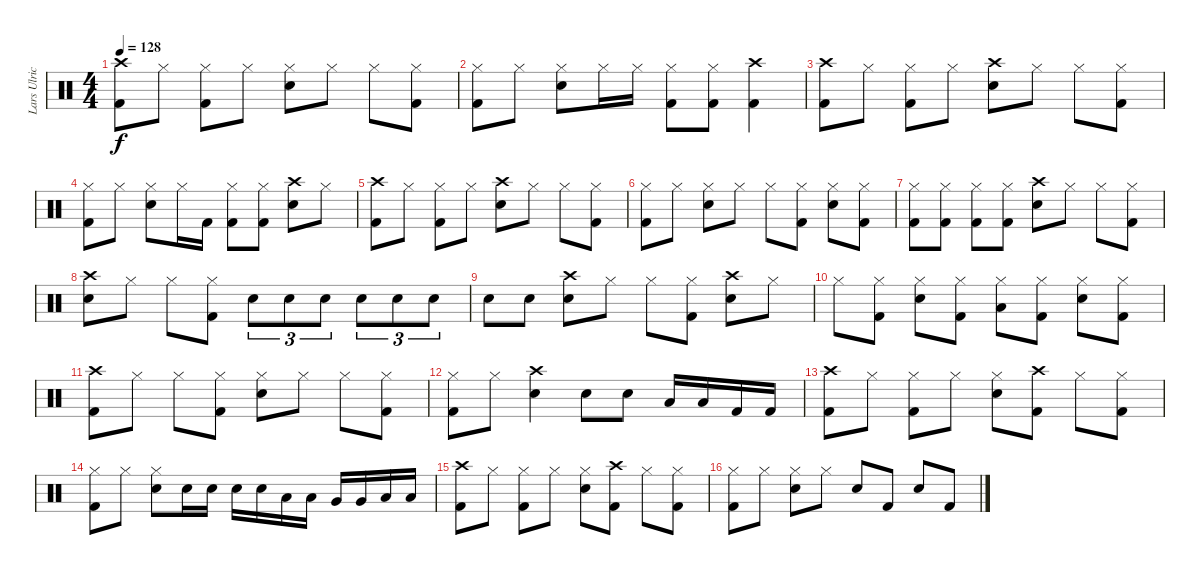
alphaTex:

\track ("Lars Ulrich" "Lars Ulric") {instrument percussion}
\staff {score}
\articulation defaults
\ts (4 4)
\tempo 128
\clef neutral
\ks c
("Crash high (hit)" "Kick (hit) 2").8{dy f} "Hi-Hat (closed)".8 ("Hi-Hat (closed)" "Kick (hit) 2").8 "Hi-Hat (closed)".8 ("Hi-Hat (closed)" "Electric Snare (hit)").8 "Hi-Hat (closed)".8 "Hi-Hat (closed)".8 ("Hi-Hat (closed)" "Kick (hit) 2").8 |
("Hi-Hat (closed)" "Kick (hit) 2").8 "Hi-Hat (closed)".8 ("Hi-Hat (closed)" "Electric Snare (hit)").8 "Hi-Hat (closed)".16 "Hi-Hat (closed)".16 ("Hi-Hat (closed)" "Kick (hit) 2").8 ("Hi-Hat (closed)" "Kick (hit) 2").8 ("Crash high (hit)" "Kick (hit) 2").4 |
("Crash high (hit)" "Kick (hit) 2").8 "Hi-Hat (closed)".8 ("Hi-Hat (closed)" "Kick (hit) 2").8 "Hi-Hat (closed)".8 ("Crash high (hit)" "Electric Snare (hit)").8 "Hi-Hat (closed)".8 "Hi-Hat (closed)".8 ("Hi-Hat (closed)" "Kick (hit) 2").8 |
("Hi-Hat (closed)" "Kick (hit) 2").8 "Hi-Hat (closed)".8 ("Hi-Hat (closed)" "Electric Snare (hit)").8 "Hi-Hat (closed)".16 "Kick (hit) 2".16 ("Hi-Hat (closed)" "Kick (hit) 2").8 ("Hi-Hat (closed)" "Kick (hit) 2").8 ("Crash high (hit)" "Electric Snare (hit)").8 "Hi-Hat (closed)".8 |
("Crash high (hit)" "Kick (hit) 2").8 "Hi-Hat (closed)".8 ("Hi-Hat (closed)" "Kick (hit) 2").8 "Hi-Hat (closed)".8 ("Crash high (hit)" "Electric Snare (hit)").8 "Hi-Hat (closed)".8 "Hi-Hat (closed)".8 ("Hi-Hat (closed)" "Kick (hit) 2").8 |
("Hi-Hat (closed)" "Kick (hit) 2").8 "Hi-Hat (closed)".8 ("Hi-Hat (closed)" "Electric Snare (hit)").8 "Hi-Hat (closed)".8 "Hi-Hat (closed)".8 ("Hi-Hat (closed)" "Kick (hit) 2").8 ("Hi-Hat (closed)" "Electric Snare (hit)").8 ("Hi-Hat (closed)" "Kick (hit) 2").8 |
("Hi-Hat (closed)" "Kick (hit) 2").8 ("Hi-Hat (closed)" "Kick (hit) 2").8 ("Hi-Hat (closed)" "Kick (hit) 2").8 ("Hi-Hat (closed)" "Kick (hit) 2").8 ("Crash high (hit)" "Electric Snare (hit)").8 "Hi-Hat (closed)".8 "Hi-Hat (closed)".8 ("Hi-Hat (closed)" "Kick (hit) 2").8 |
("Crash high (hit)" "Electric Snare (hit)").8 "Hi-Hat (closed)".8 "Hi-Hat (closed)".8 ("Hi-Hat (closed)" "Kick (hit) 2").8 "Electric Snare (hit)".8{tu (3 2)} "Electric Snare (hit)".8{tu (3 2)} "Electric Snare (hit)".8{tu (3 2)} "Electric Snare (hit)".8{tu (3 2)} "Electric Snare (hit)".8{tu (3 2)} "Electric Snare (hit)".8{tu (3 2)} |
"Electric Snare (hit)".8 "Electric Snare (hit)".8 ("Crash high (hit)" "Electric Snare (hit)").8 "Hi-Hat (closed)".8 "Hi-Hat (closed)".8 ("Hi-Hat (closed)" "Kick (hit) 2").8 ("Crash high (hit)" "Electric Snare (hit)").8 "Hi-Hat (closed)".8 |
"Hi-Hat (closed)".8 ("Hi-Hat (closed)" "Kick (hit) 2").8 ("Hi-Hat (closed)" "Electric Snare (hit)").8 ("Hi-Hat (closed)" "Kick (hit) 2").8 ("Hi-Hat (closed)" "Low Floor Tom (hit)").8 ("Hi-Hat (closed)" "Kick (hit) 2").8 ("Hi-Hat (closed)" "Electric Snare (hit)").8 ("Hi-Hat (closed)" "Kick (hit) 2").8 |
("Crash high (hit)" "Kick (hit) 2").8 "Hi-Hat (closed)".8 "Hi-Hat (closed)".8 ("Hi-Hat (closed)" "Kick (hit) 2").8 ("Hi-Hat (closed)" "Electric Snare (hit)").8 "Hi-Hat (closed)".8 "Hi-Hat (closed)".8 ("Hi-Hat (closed)" "Kick (hit) 2").8 |
("Hi-Hat (closed)" "Kick (hit) 2").8 "Hi-Hat (closed)".8 ("Crash high (hit)" "Electric Snare (hit)").4 "Electric Snare (hit)".8 "Electric Snare (hit)".8 "Low Floor Tom (hit)".16 "Low Floor Tom (hit)".16 "Kick (hit) 2".16 "Kick (hit) 2".16 |
("Crash high (hit)" "Kick (hit) 2").8 "Hi-Hat (closed)".8 ("Hi-Hat (closed)" "Kick (hit) 2").8 "Hi-Hat (closed)".8 ("Hi-Hat (closed)" "Electric Snare (hit)").8 ("Crash high (hit)" "Kick (hit) 2").8 "Hi-Hat (closed)".8 ("Hi-Hat (closed)" "Kick (hit) 2").8 |
("Hi-Hat (closed)" "Kick (hit) 2").8 "Hi-Hat (closed)".8 ("Hi-Hat (closed)" "Electric Snare (hit)").8 "Electric Snare (hit)".16 "Electric Snare (hit)".16 "Electric Snare (hit)".16 "Electric Snare (hit)".16 "Low Floor Tom (hit)".16 "Low Floor Tom (hit)".16 "Very Low Tom (hit)".16 "Very Low Tom (hit)".16 "Low Floor Tom (hit)".16 "Low Floor Tom (hit)".16 |
("Crash high (hit)" "Kick (hit) 2").8 "Hi-Hat (closed)".8 ("Hi-Hat (closed)" "Kick (hit) 2").8 "Hi-Hat (closed)".8 ("Hi-Hat (closed)" "Electric Snare (hit)").8 ("Crash high (hit)" "Kick (hit) 2").8 "Hi-Hat (closed)".8 ("Hi-Hat (closed)" "Kick (hit) 2").8 |
("Hi-Hat (closed)" "Kick (hit) 2").8 "Hi-Hat (closed)".8 ("Hi-Hat (closed)" "Electric Snare (hit)").8 "Hi-Hat (closed)".8 "Electric Snare (hit)".8 "Kick (hit) 2".8 "Electric Snare (hit)".8 "Kick (hit) 2".8
